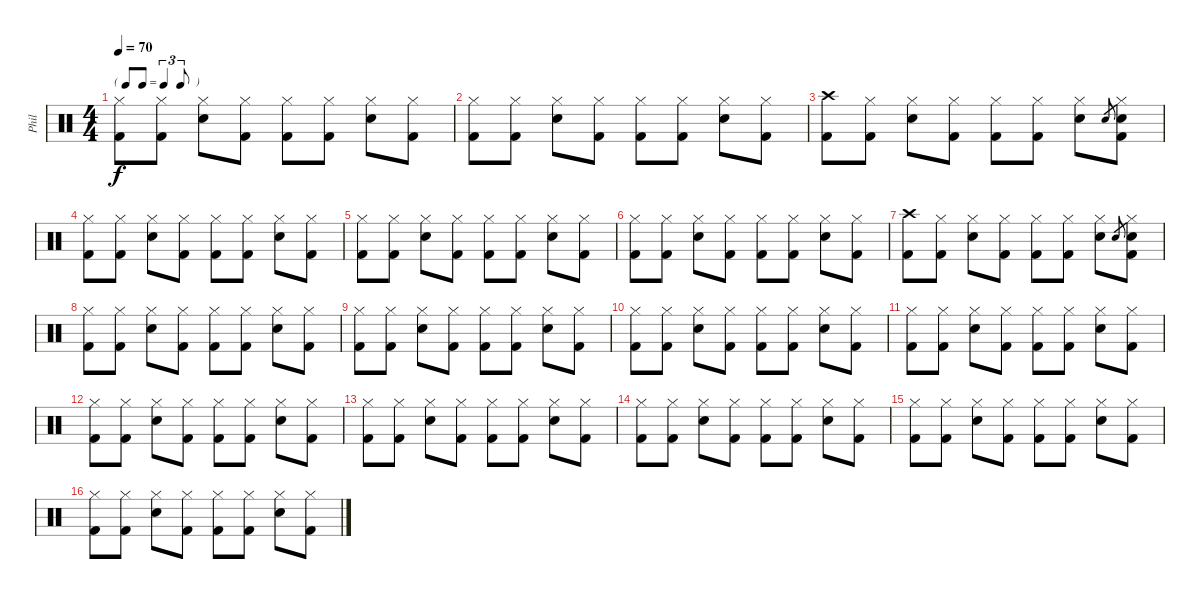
\track ("Phil" "Phil") {instrument percussion}
\staff {score}
\articulation defaults
\ts (4 4)
\tf triplet8th
\tempo 70
\clef neutral
\ks c
("Hi-Hat (closed)" "Kick (hit) 2").8{dy f} ("Hi-Hat (closed)" "Kick (hit) 2").8 ("Hi-Hat (closed)" "Snare (hit) 2").8 ("Hi-Hat (closed)" "Kick (hit) 2").8 ("Hi-Hat (closed)" "Kick (hit) 2").8 ("Hi-Hat (closed)" "Kick (hit) 2").8 ("Hi-Hat (closed)" "Snare (hit) 2").8 ("Hi-Hat (closed)" "Kick (hit) 2").8 |
("Hi-Hat (closed)" "Kick (hit) 2").8 ("Hi-Hat (closed)" "Kick (hit) 2").8 ("Hi-Hat (closed)" "Snare (hit) 2").8 ("Hi-Hat (closed)" "Kick (hit) 2").8 ("Hi-Hat (closed)" "Kick (hit) 2").8 ("Hi-Hat (closed)" "Kick (hit) 2").8 ("Hi-Hat (closed)" "Snare (hit) 2").8 ("Hi-Hat (closed)" "Kick (hit) 2").8 |
("Crash high (hit)" "Kick (hit) 2").8 ("Hi-Hat (closed)" "Kick (hit) 2").8 ("Hi-Hat (closed)" "Snare (hit) 2").8 ("Hi-Hat (closed)" "Kick (hit) 2").8 ("Hi-Hat (closed)" "Kick (hit) 2").8 ("Hi-Hat (closed)" "Kick (hit) 2").8 ("Hi-Hat (closed)" "Snare (hit) 2").8 "Snare (hit) 2".8{gr} ("Hi-Hat (closed)" "Snare (hit) 2" "Kick (hit) 2").8 |
("Hi-Hat (closed)" "Kick (hit) 2").8 ("Hi-Hat (closed)" "Kick (hit) 2").8 ("Hi-Hat (closed)" "Snare (hit) 2").8 ("Hi-Hat (closed)" "Kick (hit) 2").8 ("Hi-Hat (closed)" "Kick (hit) 2").8 ("Hi-Hat (closed)" "Kick (hit) 2").8 ("Hi-Hat (closed)" "Snare (hit) 2").8 ("Hi-Hat (closed)" "Kick (hit) 2").8 |
("Hi-Hat (closed)" "Kick (hit) 2").8 ("Hi-Hat (closed)" "Kick (hit) 2").8 ("Hi-Hat (closed)" "Snare (hit) 2").8 ("Hi-Hat (closed)" "Kick (hit) 2").8 ("Hi-Hat (closed)" "Kick (hit) 2").8 ("Hi-Hat (closed)" "Kick (hit) 2").8 ("Hi-Hat (closed)" "Snare (hit) 2").8 ("Hi-Hat (closed)" "Kick (hit) 2").8 |
("Hi-Hat (closed)" "Kick (hit) 2").8 ("Hi-Hat (closed)" "Kick (hit) 2").8 ("Hi-Hat (closed)" "Snare (hit) 2").8 ("Hi-Hat (closed)" "Kick (hit) 2").8 ("Hi-Hat (closed)" "Kick (hit) 2").8 ("Hi-Hat (closed)" "Kick (hit) 2").8 ("Hi-Hat (closed)" "Snare (hit) 2").8 ("Hi-Hat (closed)" "Kick (hit) 2").8 |
("Crash high (hit)" "Kick (hit) 2").8 ("Hi-Hat (closed)" "Kick (hit) 2").8 ("Hi-Hat (closed)" "Snare (hit) 2").8 ("Hi-Hat (closed)" "Kick (hit) 2").8 ("Hi-Hat (closed)" "Kick (hit) 2").8 ("Hi-Hat (closed)" "Kick (hit) 2").8 ("Hi-Hat (closed)" "Snare (hit) 2").8 "Snare (hit) 2".8{gr} ("Hi-Hat (closed)" "Snare (hit) 2" "Kick (hit) 2").8 |
("Hi-Hat (closed)" "Kick (hit) 2").8 ("Hi-Hat (closed)" "Kick (hit) 2").8 ("Hi-Hat (closed)" "Snare (hit) 2").8 ("Hi-Hat (closed)" "Kick (hit) 2").8 ("Hi-Hat (closed)" "Kick (hit) 2").8 ("Hi-Hat (closed)" "Kick (hit) 2").8 ("Hi-Hat (closed)" "Snare (hit) 2").8 ("Hi-Hat (closed)" "Kick (hit) 2").8 |
("Hi-Hat (closed)" "Kick (hit) 2").8 ("Hi-Hat (closed)" "Kick (hit) 2").8 ("Hi-Hat (closed)" "Snare (hit) 2").8 ("Hi-Hat (closed)" "Kick (hit) 2").8 ("Hi-Hat (closed)" "Kick (hit) 2").8 ("Hi-Hat (closed)" "Kick (hit) 2").8 ("Hi-Hat (closed)" "Snare (hit) 2").8 ("Hi-Hat (closed)" "Kick (hit) 2").8 |
("Hi-Hat (closed)" "Kick (hit) 2").8 ("Hi-Hat (closed)" "Kick (hit) 2").8 ("Hi-Hat (closed)" "Snare (hit) 2").8 ("Hi-Hat (closed)" "Kick (hit) 2").8 ("Hi-Hat (closed)" "Kick (hit) 2").8 ("Hi-Hat (closed)" "Kick (hit) 2").8 ("Hi-Hat (closed)" "Snare (hit) 2").8 ("Hi-Hat (closed)" "Kick (hit) 2").8 |
("Hi-Hat (closed)" "Kick (hit) 2").8 ("Hi-Hat (closed)" "Kick (hit) 2").8 ("Hi-Hat (closed)" "Snare (hit) 2").8 ("Hi-Hat (closed)" "Kick (hit) 2").8 ("Hi-Hat (closed)" "Kick (hit) 2").8 ("Hi-Hat (closed)" "Kick (hit) 2").8 ("Hi-Hat (closed)" "Snare (hit) 2").8 ("Hi-Hat (closed)" "Kick (hit) 2").8 |
("Hi-Hat (closed)" "Kick (hit) 2").8 ("Hi-Hat (closed)" "Kick (hit) 2").8 ("Hi-Hat (closed)" "Snare (hit) 2").8 ("Hi-Hat (closed)" "Kick (hit) 2").8 ("Hi-Hat (closed)" "Kick (hit) 2").8 ("Hi-Hat (closed)" "Kick (hit) 2").8 ("Hi-Hat (closed)" "Snare (hit) 2").8 ("Hi-Hat (closed)" "Kick (hit) 2").8 |
("Hi-Hat (closed)" "Kick (hit) 2").8 ("Hi-Hat (closed)" "Kick (hit) 2").8 ("Hi-Hat (closed)" "Snare (hit) 2").8 ("Hi-Hat (closed)" "Kick (hit) 2").8 ("Hi-Hat (closed)" "Kick (hit) 2").8 ("Hi-Hat (closed)" "Kick (hit) 2").8 ("Hi-Hat (closed)" "Snare (hit) 2").8 ("Hi-Hat (closed)" "Kick (hit) 2").8 |
("Hi-Hat (closed)" "Kick (hit) 2").8 ("Hi-Hat (closed)" "Kick (hit) 2").8 ("Hi-Hat (closed)" "Snare (hit) 2").8 ("Hi-Hat (closed)" "Kick (hit) 2").8 ("Hi-Hat (closed)" "Kick (hit) 2").8 ("Hi-Hat (closed)" "Kick (hit) 2").8 ("Hi-Hat (closed)" "Snare (hit) 2").8 ("Hi-Hat (closed)" "Kick (hit) 2").8 |
("Hi-Hat (closed)" "Kick (hit) 2").8 ("Hi-Hat (closed)" "Kick (hit) 2").8 ("Hi-Hat (closed)" "Snare (hit) 2").8 ("Hi-Hat (closed)" "Kick (hit) 2").8 ("Hi-Hat (closed)" "Kick (hit) 2").8 ("Hi-Hat (closed)" "Kick (hit) 2").8 ("Hi-Hat (closed)" "Snare (hit) 2").8 ("Hi-Hat (closed)" "Kick (hit) 2").8 |
("Hi-Hat (closed)" "Kick (hit) 2").8 ("Hi-Hat (closed)" "Kick (hit) 2").8 ("Hi-Hat (closed)" "Snare (hit) 2").8 ("Hi-Hat (closed)" "Kick (hit) 2").8 ("Hi-Hat (closed)" "Kick (hit) 2").8 ("Hi-Hat (closed)" "Kick (hit) 2").8 ("Hi-Hat (closed)" "Snare (hit) 2").8 ("Hi-Hat (closed)" "Kick (hit) 2").8
